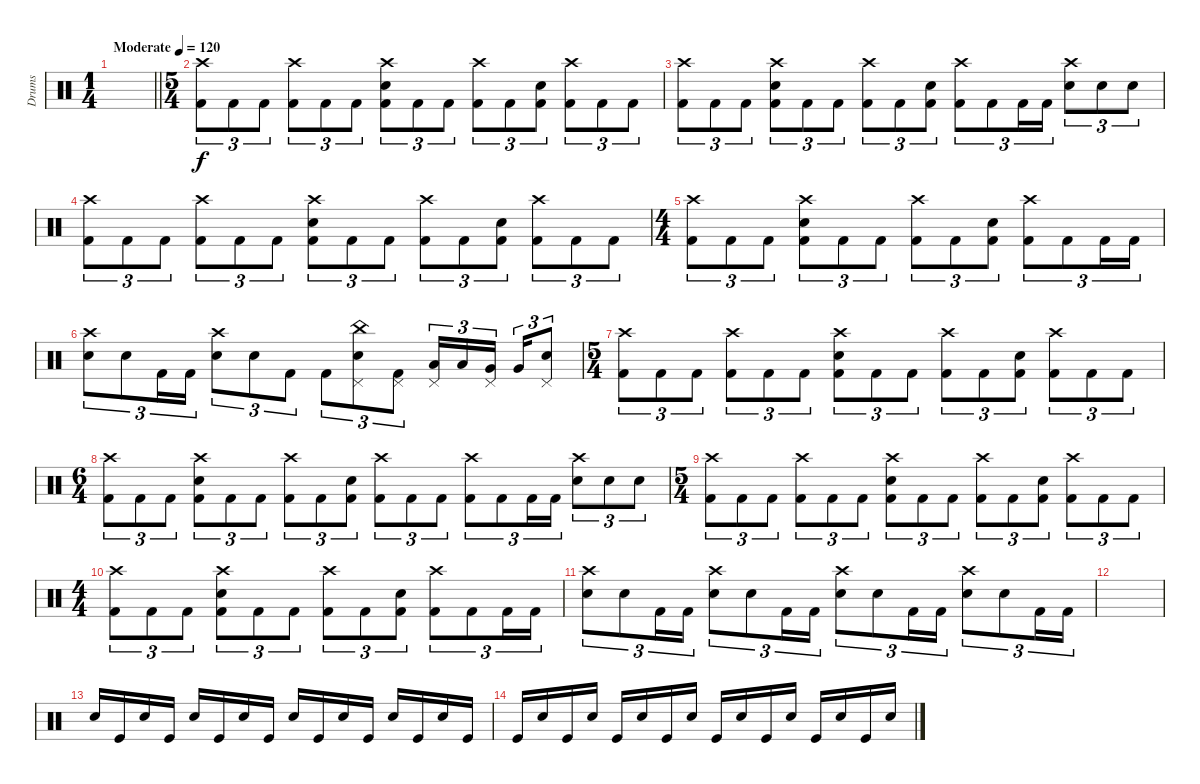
\track ("Drums" "Drums") {instrument percussion}
\staff
\articulation defaults
\ts (1 4)
\tempo (120 "Moderate")
\clef neutral
\barLineRight lightlight
\ks c
|
\ts (5 4)
("Crash high (hit)" "Kick (hit) 2").8{tu (3 2)} "Kick (hit) 2".8{tu (3 2)} "Kick (hit) 2".8{tu (3 2)} ("Crash high (hit)" "Kick (hit) 2").8{tu (3 2)} "Kick (hit) 2".8{tu (3 2)} "Kick (hit) 2".8{tu (3 2)} ("Crash high (hit)" "Electric Snare (hit)" "Kick (hit) 2").8{tu (3 2)} "Kick (hit) 2".8{tu (3 2)} "Kick (hit) 2".8{tu (3 2)} ("Crash high (hit)" "Kick (hit) 2").8{tu (3 2)} "Kick (hit) 2".8{tu (3 2)} ("Electric Snare (hit)" "Kick (hit) 2").8{tu (3 2)} ("Crash high (hit)" "Kick (hit) 2").8{tu (3 2)} "Kick (hit) 2".8{tu (3 2)} "Kick (hit) 2".8{tu (3 2)} |
("Crash high (hit)" "Kick (hit) 2").8{tu (3 2)} "Kick (hit) 2".8{tu (3 2)} "Kick (hit) 2".8{tu (3 2)} ("Crash high (hit)" "Electric Snare (hit)" "Kick (hit) 2").8{tu (3 2)} "Kick (hit) 2".8{tu (3 2)} "Kick (hit) 2".8{tu (3 2)} ("Crash high (hit)" "Kick (hit) 2").8{tu (3 2)} "Kick (hit) 2".8{tu (3 2)} ("Electric Snare (hit)" "Kick (hit) 2").8{tu (3 2)} ("Crash high (hit)" "Kick (hit) 2").8{tu (3 2)} "Kick (hit) 2".8{tu (3 2)} "Kick (hit) 2".16{tu (3 2)} "Kick (hit) 2".16{tu (3 2)} ("Crash high (hit)" "Electric Snare (hit)").8{tu (3 2)} "Electric Snare (hit)".8{tu (3 2)} "Electric Snare (hit)".8{tu (3 2)} |
("Crash high (hit)" "Kick (hit) 2").8{tu (3 2)} "Kick (hit) 2".8{tu (3 2)} "Kick (hit) 2".8{tu (3 2)} ("Crash high (hit)" "Kick (hit) 2").8{tu (3 2)} "Kick (hit) 2".8{tu (3 2)} "Kick (hit) 2".8{tu (3 2)} ("Crash high (hit)" "Electric Snare (hit)" "Kick (hit) 2").8{tu (3 2)} "Kick (hit) 2".8{tu (3 2)} "Kick (hit) 2".8{tu (3 2)} ("Crash high (hit)" "Kick (hit) 2").8{tu (3 2)} "Kick (hit) 2".8{tu (3 2)} ("Electric Snare (hit)" "Kick (hit) 2").8{tu (3 2)} ("Crash high (hit)" "Kick (hit) 2").8{tu (3 2)} "Kick (hit) 2".8{tu (3 2)} "Kick (hit) 2".8{tu (3 2)} |
\ts (4 4)
("Crash high (hit)" "Kick (hit) 2").8{tu (3 2)} "Kick (hit) 2".8{tu (3 2)} "Kick (hit) 2".8{tu (3 2)} ("Crash high (hit)" "Electric Snare (hit)" "Kick (hit) 2").8{tu (3 2)} "Kick (hit) 2".8{tu (3 2)} "Kick (hit) 2".8{tu (3 2)} ("Crash high (hit)" "Kick (hit) 2").8{tu (3 2)} "Kick (hit) 2".8{tu (3 2)} ("Electric Snare (hit)" "Kick (hit) 2").8{tu (3 2)} ("Crash high (hit)" "Kick (hit) 2").8{tu (3 2)} "Kick (hit) 2".8{tu (3 2)} "Kick (hit) 2".16{tu (3 2)} "Kick (hit) 2".16{tu (3 2)} |
("Crash high (hit)" "Electric Snare (hit)").8{tu (3 2)} "Electric Snare (hit)".8{tu (3 2)} "Kick (hit) 2".16{tu (3 2)} "Kick (hit) 2".16{tu (3 2)} ("Crash high (hit)" "Electric Snare (hit)").8{tu (3 2)} "Electric Snare (hit)".8{tu (3 2)} "Kick (hit) 2".8{tu (3 2)} "Kick (hit) 2".8{tu (3 2)} ("Pedal Hi-Hat (hit)" "China (hit)" "Electric Snare (hit)").8{tu (3 2)} ("Pedal Hi-Hat (hit)" "Kick (hit) 2").8{tu (3 2)} ("Pedal Hi-Hat (hit)" "Low Tom (hit)").16{tu (3 2)} "Low Tom (hit)".16{tu (3 2)} ("Pedal Hi-Hat (hit)" "Very Low Tom (hit)").16{tu (3 2) beam splitsecondary} "Very Low Tom (hit)".16{tu (3 2)} ("Pedal Hi-Hat (hit)" "Electric Snare (hit)").8{tu (3 2)} |
\ts (5 4)
("Crash high (hit)" "Kick (hit) 2").8{tu (3 2)} "Kick (hit) 2".8{tu (3 2)} "Kick (hit) 2".8{tu (3 2)} ("Crash high (hit)" "Kick (hit) 2").8{tu (3 2)} "Kick (hit) 2".8{tu (3 2)} "Kick (hit) 2".8{tu (3 2)} ("Crash high (hit)" "Electric Snare (hit)" "Kick (hit) 2").8{tu (3 2)} "Kick (hit) 2".8{tu (3 2)} "Kick (hit) 2".8{tu (3 2)} ("Crash high (hit)" "Kick (hit) 2").8{tu (3 2)} "Kick (hit) 2".8{tu (3 2)} ("Electric Snare (hit)" "Kick (hit) 2").8{tu (3 2)} ("Crash high (hit)" "Kick (hit) 2").8{tu (3 2)} "Kick (hit) 2".8{tu (3 2)} "Kick (hit) 2".8{tu (3 2)} |
\ts (6 4)
("Crash high (hit)" "Kick (hit) 2").8{tu (3 2)} "Kick (hit) 2".8{tu (3 2)} "Kick (hit) 2".8{tu (3 2)} ("Crash high (hit)" "Electric Snare (hit)" "Kick (hit) 2").8{tu (3 2)} "Kick (hit) 2".8{tu (3 2)} "Kick (hit) 2".8{tu (3 2)} ("Crash high (hit)" "Kick (hit) 2").8{tu (3 2)} "Kick (hit) 2".8{tu (3 2)} ("Electric Snare (hit)" "Kick (hit) 2").8{tu (3 2)} ("Crash high (hit)" "Kick (hit) 2").8{tu (3 2)} "Kick (hit) 2".8{tu (3 2)} "Kick (hit) 2".8{tu (3 2)} ("Crash high (hit)" "Kick (hit) 2").8{tu (3 2)} "Kick (hit) 2".8{tu (3 2)} "Kick (hit) 2".16{tu (3 2)} "Kick (hit) 2".16{tu (3 2)} ("Crash high (hit)" "Electric Snare (hit)").8{tu (3 2)} "Electric Snare (hit)".8{tu (3 2)} "Electric Snare (hit)".8{tu (3 2)} |
\ts (5 4)
("Crash high (hit)" "Kick (hit) 2").8{tu (3 2)} "Kick (hit) 2".8{tu (3 2)} "Kick (hit) 2".8{tu (3 2)} ("Crash high (hit)" "Kick (hit) 2").8{tu (3 2)} "Kick (hit) 2".8{tu (3 2)} "Kick (hit) 2".8{tu (3 2)} ("Crash high (hit)" "Electric Snare (hit)" "Kick (hit) 2").8{tu (3 2)} "Kick (hit) 2".8{tu (3 2)} "Kick (hit) 2".8{tu (3 2)} ("Crash high (hit)" "Kick (hit) 2").8{tu (3 2)} "Kick (hit) 2".8{tu (3 2)} ("Electric Snare (hit)" "Kick (hit) 2").8{tu (3 2)} ("Crash high (hit)" "Kick (hit) 2").8{tu (3 2)} "Kick (hit) 2".8{tu (3 2)} "Kick (hit) 2".8{tu (3 2)} |
\ts (4 4)
("Crash high (hit)" "Kick (hit) 2").8{tu (3 2)} "Kick (hit) 2".8{tu (3 2)} "Kick (hit) 2".8{tu (3 2)} ("Crash high (hit)" "Electric Snare (hit)" "Kick (hit) 2").8{tu (3 2)} "Kick (hit) 2".8{tu (3 2)} "Kick (hit) 2".8{tu (3 2)} ("Crash high (hit)" "Kick (hit) 2").8{tu (3 2)} "Kick (hit) 2".8{tu (3 2)} ("Electric Snare (hit)" "Kick (hit) 2").8{tu (3 2)} ("Crash high (hit)" "Kick (hit) 2").8{tu (3 2)} "Kick (hit) 2".8{tu (3 2)} "Kick (hit) 2".16{tu (3 2)} "Kick (hit) 2".16{tu (3 2)} |
("Crash high (hit)" "Electric Snare (hit)").8{tu (3 2)} "Electric Snare (hit)".8{tu (3 2)} "Kick (hit) 2".16{tu (3 2)} "Kick (hit) 2".16{tu (3 2)} ("Crash high (hit)" "Electric Snare (hit)").8{tu (3 2)} "Electric Snare (hit)".8{tu (3 2)} "Kick (hit) 2".16{tu (3 2)} "Kick (hit) 2".16{tu (3 2)} ("Crash high (hit)" "Electric Snare (hit)").8{tu (3 2)} "Electric Snare (hit)".8{tu (3 2)} "Kick (hit) 2".16{tu (3 2)} "Kick (hit) 2".16{tu (3 2)} ("Crash high (hit)" "Electric Snare (hit)").8{tu (3 2)} "Electric Snare (hit)".8{tu (3 2)} "Kick (hit) 2".16{tu (3 2)} "Kick (hit) 2".16{tu (3 2)} |
|
"Electric Snare (hit)".16 "Kick (hit)".16 "Electric Snare (hit)".16 "Kick (hit)".16 "Electric Snare (hit)".16 "Kick (hit)".16 "Electric Snare (hit)".16 "Kick (hit)".16 "Electric Snare (hit)".16 "Kick (hit)".16 "Electric Snare (hit)".16 "Kick (hit)".16 "Electric Snare (hit)".16 "Kick (hit)".16 "Electric Snare (hit)".16 "Kick (hit)".16 |
"Kick (hit)".16 "Electric Snare (hit)".16 "Kick (hit)".16 "Electric Snare (hit)".16 "Kick (hit)".16 "Electric Snare (hit)".16 "Kick (hit)".16 "Electric Snare (hit)".16 "Kick (hit)".16 "Electric Snare (hit)".16 "Kick (hit)".16 "Electric Snare (hit)".16 "Kick (hit)".16 "Electric Snare (hit)".16 "Kick (hit)".16 "Electric Snare (hit)".16
